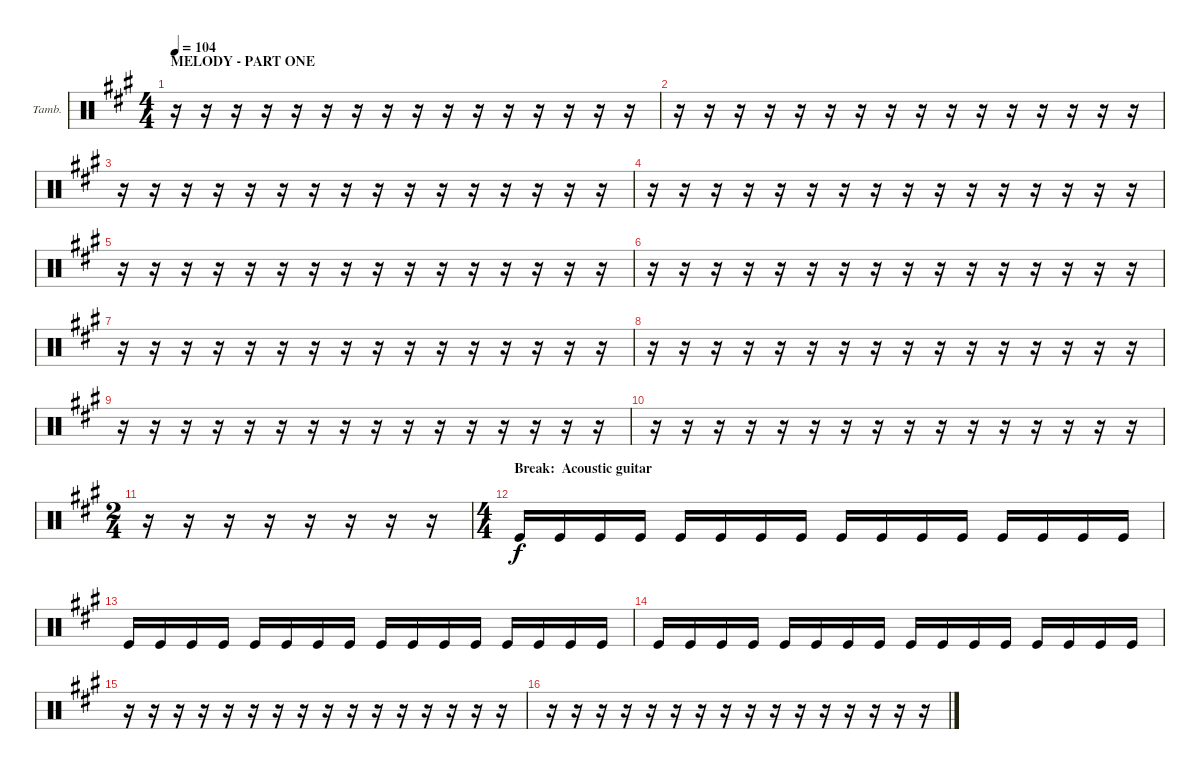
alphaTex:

\bracketExtendMode groupsimilarinstruments
\firstSystemTrackNameOrientation horizontal
\otherSystemsTrackNameOrientation horizontal
\track ("Tambourine" "Tamb.") {instrument percussion}
\staff {score}
\articulation defaults
\ts (4 4)
\section ("" "MELODY - PART ONE")
\tempo 104
\clef neutral
\ks a
r.16{dy f} r.16 r.16 r.16 r.16 r.16 r.16 r.16 r.16 r.16 r.16 r.16 r.16 r.16 r.16 r.16 |
r.16 r.16 r.16 r.16 r.16 r.16 r.16 r.16 r.16 r.16 r.16 r.16 r.16 r.16 r.16 r.16 |
r.16 r.16 r.16 r.16 r.16 r.16 r.16 r.16 r.16 r.16 r.16 r.16 r.16 r.16 r.16 r.16 |
r.16 r.16 r.16 r.16 r.16 r.16 r.16 r.16 r.16 r.16 r.16 r.16 r.16 r.16 r.16 r.16 |
r.16 r.16 r.16 r.16 r.16 r.16 r.16 r.16 r.16 r.16 r.16 r.16 r.16 r.16 r.16 r.16 |
r.16 r.16 r.16 r.16 r.16 r.16 r.16 r.16 r.16 r.16 r.16 r.16 r.16 r.16 r.16 r.16 |
r.16 r.16 r.16 r.16 r.16 r.16 r.16 r.16 r.16 r.16 r.16 r.16 r.16 r.16 r.16 r.16 |
r.16 r.16 r.16 r.16 r.16 r.16 r.16 r.16 r.16 r.16 r.16 r.16 r.16 r.16 r.16 r.16 |
r.16 r.16 r.16 r.16 r.16 r.16 r.16 r.16 r.16 r.16 r.16 r.16 r.16 r.16 r.16 r.16 |
r.16 r.16 r.16 r.16 r.16 r.16 r.16 r.16 r.16 r.16 r.16 r.16 r.16 r.16 r.16 r.16 |
\ts (2 4)
r.16 r.16 r.16 r.16 r.16 r.16 r.16 r.16 |
\ts (4 4)
\section ("" "Break:  Acoustic guitar")
"Kick (hit)".16 "Kick (hit)".16 "Kick (hit)".16 "Kick (hit)".16 "Kick (hit)".16 "Kick (hit)".16 "Kick (hit)".16 "Kick (hit)".16 "Kick (hit)".16 "Kick (hit)".16 "Kick (hit)".16 "Kick (hit)".16 "Kick (hit)".16 "Kick (hit)".16 "Kick (hit)".16 "Kick (hit)".16 |
"Kick (hit)".16 "Kick (hit)".16 "Kick (hit)".16 "Kick (hit)".16 "Kick (hit)".16 "Kick (hit)".16 "Kick (hit)".16 "Kick (hit)".16 "Kick (hit)".16 "Kick (hit)".16 "Kick (hit)".16 "Kick (hit)".16 "Kick (hit)".16 "Kick (hit)".16 "Kick (hit)".16 "Kick (hit)".16 |
"Kick (hit)".16 "Kick (hit)".16 "Kick (hit)".16 "Kick (hit)".16 "Kick (hit)".16 "Kick (hit)".16 "Kick (hit)".16 "Kick (hit)".16 "Kick (hit)".16 "Kick (hit)".16 "Kick (hit)".16 "Kick (hit)".16 "Kick (hit)".16 "Kick (hit)".16 "Kick (hit)".16 "Kick (hit)".16 |
r.16 r.16 r.16 r.16 r.16 r.16 r.16 r.16 r.16 r.16 r.16 r.16 r.16 r.16 r.16 r.16 |
r.16 r.16 r.16 r.16 r.16 r.16 r.16 r.16 r.16 r.16 r.16 r.16 r.16 r.16 r.16 r.16
